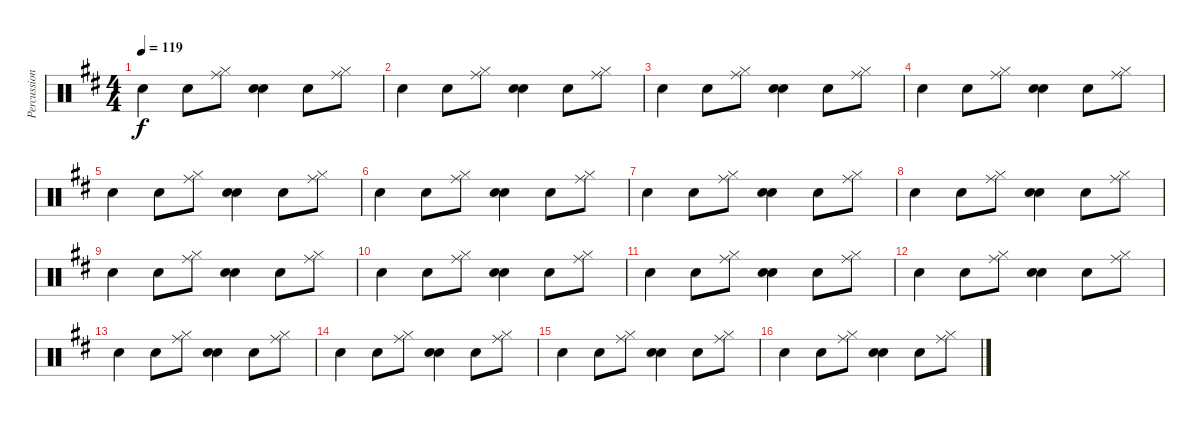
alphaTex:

\track ("Percussion" "Percussion") {instrument percussion}
\staff {score}
\articulation defaults
\ts (4 4)
\tempo 119
\clef neutral
\ks d "Electric Snare (hit)".4{dy f} "Electric Snare (hit)".8
("Hi-Hat (closed)" "Ride (middle)").8 ("Electric Snare (hit)" "Electric Snare (hit)").4 "Electric Snare (hit)".8 ("Ride (middle)" "Hi-Hat (closed)").8 |
"Electric Snare (hit)".4 "Electric Snare (hit)".8 ("Hi-Hat (closed)" "Ride (middle)").8 ("Electric Snare (hit)" "Electric Snare (hit)").4 "Electric Snare (hit)".8 ("Ride (middle)" "Hi-Hat (closed)").8 |
"Electric Snare (hit)".4 "Electric Snare (hit)".8 ("Hi-Hat (closed)" "Ride (middle)").8 ("Electric Snare (hit)" "Electric Snare (hit)").4 "Electric Snare (hit)".8 ("Ride (middle)" "Hi-Hat (closed)").8 |
"Electric Snare (hit)".4 "Electric Snare (hit)".8 ("Hi-Hat (closed)" "Ride (middle)").8 ("Electric Snare (hit)" "Electric Snare (hit)").4 "Electric Snare (hit)".8 ("Ride (middle)" "Hi-Hat (closed)").8 |
"Electric Snare (hit)".4 "Electric Snare (hit)".8 ("Hi-Hat (closed)" "Ride (middle)").8 ("Electric Snare (hit)" "Electric Snare (hit)").4 "Electric Snare (hit)".8 ("Ride (middle)" "Hi-Hat (closed)").8 |
"Electric Snare (hit)".4 "Electric Snare (hit)".8 ("Hi-Hat (closed)" "Ride (middle)").8 ("Electric Snare (hit)" "Electric Snare (hit)").4 "Electric Snare (hit)".8 ("Ride (middle)" "Hi-Hat (closed)").8 |
"Electric Snare (hit)".4 "Electric Snare (hit)".8 ("Hi-Hat (closed)" "Ride (middle)").8 ("Electric Snare (hit)" "Electric Snare (hit)").4 "Electric Snare (hit)".8 ("Ride (middle)" "Hi-Hat (closed)").8 |
"Electric Snare (hit)".4 "Electric Snare (hit)".8 ("Hi-Hat (closed)" "Ride (middle)").8 ("Electric Snare (hit)" "Electric Snare (hit)").4 "Electric Snare (hit)".8 ("Ride (middle)" "Hi-Hat (closed)").8 |
"Electric Snare (hit)".4 "Electric Snare (hit)".8 ("Hi-Hat (closed)" "Ride (middle)").8 ("Electric Snare (hit)" "Electric Snare (hit)").4 "Electric Snare (hit)".8 ("Ride (middle)" "Hi-Hat (closed)").8 |
"Electric Snare (hit)".4 "Electric Snare (hit)".8 ("Hi-Hat (closed)" "Ride (middle)").8 ("Electric Snare (hit)" "Electric Snare (hit)").4 "Electric Snare (hit)".8 ("Ride (middle)" "Hi-Hat (closed)").8 |
"Electric Snare (hit)".4 "Electric Snare (hit)".8 ("Hi-Hat (closed)" "Ride (middle)").8 ("Electric Snare (hit)" "Electric Snare (hit)").4 "Electric Snare (hit)".8 ("Ride (middle)" "Hi-Hat (closed)").8 |
"Electric Snare (hit)".4 "Electric Snare (hit)".8 ("Hi-Hat (closed)" "Ride (middle)").8 ("Electric Snare (hit)" "Electric Snare (hit)").4 "Electric Snare (hit)".8 ("Ride (middle)" "Hi-Hat (closed)").8 |
"Electric Snare (hit)".4 "Electric Snare (hit)".8 ("Hi-Hat (closed)" "Ride (middle)").8 ("Electric Snare (hit)" "Electric Snare (hit)").4 "Electric Snare (hit)".8 ("Ride (middle)" "Hi-Hat (closed)").8 |
"Electric Snare (hit)".4 "Electric Snare (hit)".8 ("Hi-Hat (closed)" "Ride (middle)").8 ("Electric Snare (hit)" "Electric Snare (hit)").4 "Electric Snare (hit)".8 ("Ride (middle)" "Hi-Hat (closed)").8 |
"Electric Snare (hit)".4 "Electric Snare (hit)".8 ("Hi-Hat (closed)" "Ride (middle)").8 ("Electric Snare (hit)" "Electric Snare (hit)").4 "Electric Snare (hit)".8 ("Ride (middle)" "Hi-Hat (closed)").8 |
"Electric Snare (hit)".4 "Electric Snare (hit)".8 ("Hi-Hat (closed)" "Ride (middle)").8 ("Electric Snare (hit)" "Electric Snare (hit)").4 "Electric Snare (hit)".8 ("Ride (middle)" "Hi-Hat (closed)").8
